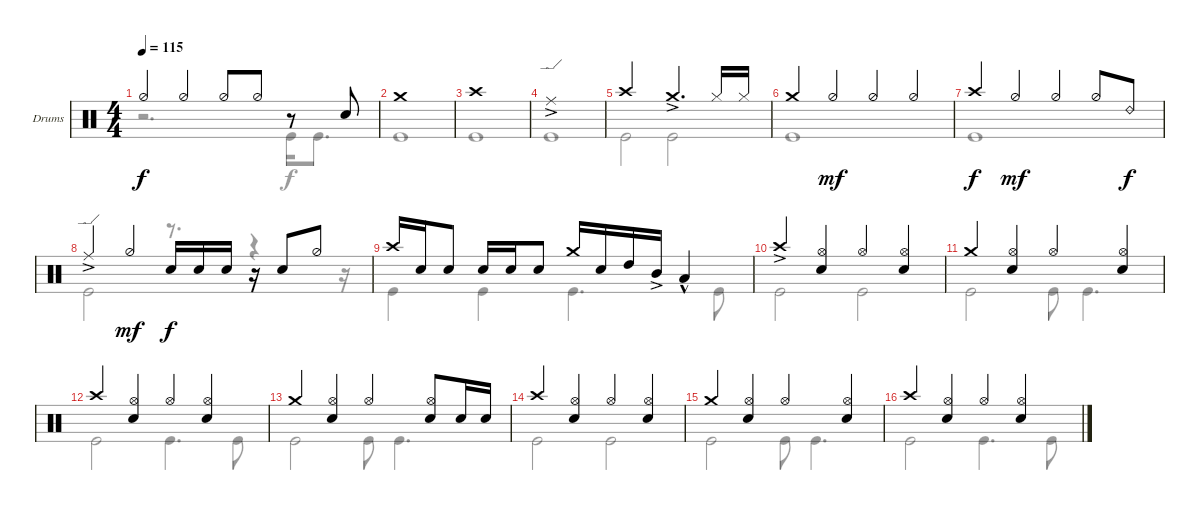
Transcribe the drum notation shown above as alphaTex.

\defaultSystemsLayout 4
\bracketExtendMode groupsimilarinstruments
\firstSystemTrackNameOrientation horizontal
\otherSystemsTrackNameOrientation horizontal
\track ("Drumkit" "Drums") {instrument percussion}
\staff {score}
\articulation defaults
\voice
\ts (4 4)
\tempo 115
\clef neutral
\scale
0.472222
\ks c "Hi-Hat (half)".4{dy f} "Hi-Hat (half)".4 "Hi-Hat (half)".8 "Hi-Hat (half)".8
r.8 "Snare (hit) 2".8 |
\scale
0.263889 "Crash medium (hit)".1 |
\scale
0.263889 "Crash high (hit)".1 |
\scale
0.333333 "Ride (edge)"{ac}.1 |
\scale
0.333333 "Crash high (hit)".2 "Crash medium (hit)"{ac}.4{d} "Hi-Hat (closed)".16 "Hi-Hat (closed)".16 |
\scale
0.333333 "Crash medium (hit)".4 "Hi-Hat (half)".4{dy mf} "Hi-Hat (half)".4 "Hi-Hat (half)".4 |
\scale
0.333333 "Crash high (hit)".4{dy f} "Hi-Hat (half)".4{dy mf} "Hi-Hat (half)".4 "Hi-Hat (half)".8 "Ride (bell) 2".8{dy f} |
\scale
0.333333 "Ride (edge)"{ac}.4 "Hi-Hat (half)".4{dy mf} "Snare (hit) 2".16{dy f} "Snare (hit) 2".16 "Snare (hit) 2".16 r.16 "Snare (hit) 2".8 "Hi-Hat (half)".8 |
\scale
0.333333 "Crash high (hit)".16 "Snare (hit) 2".16 "Snare (hit) 2".8 "Snare (hit) 2".16 "Snare (hit) 2".16 "Snare (hit) 2".8 "Crash medium (hit)".16 "Snare (hit) 2".16 "High Tom (hit)".16 "Mid Tom (hit)"{ac}.16 "Low Tom (hit)"{hac}.4 |
\scale
0.333333 "Crash high (hit)"{ac}.4 ("Hi-Hat (open)" "Snare (hit) 2").4 "Hi-Hat (open)".4 ("Hi-Hat (open)" "Snare (hit) 2").4 |
\scale
0.333333 "Crash medium (hit)".4 ("Hi-Hat (open)" "Snare (hit) 2").4 "Hi-Hat (open)".4 ("Hi-Hat (open)" "Snare (hit) 2").4 |
\scale
0.333333 "Crash high (hit)".4 ("Hi-Hat (open)" "Snare (hit) 2").4 "Hi-Hat (open)".4 ("Hi-Hat (open)" "Snare (hit) 2").4 |
\scale
0.333333 "Crash medium (hit)".4 ("Hi-Hat (open)" "Snare (hit) 2").4 "Hi-Hat (open)".4 ("Hi-Hat (open)" "Snare (hit) 2").8 "Snare (hit) 2".16 "Snare (hit) 2".16 |
\scale
0.333333 "Crash high (hit)".4 ("Hi-Hat (open)" "Snare (hit) 2").4 "Hi-Hat (open)".4 ("Hi-Hat (open)" "Snare (hit) 2").4 |
\scale
0.333333 "Crash medium (hit)".4 ("Hi-Hat (open)" "Snare (hit) 2").4 "Hi-Hat (open)".4 ("Hi-Hat (open)" "Snare (hit) 2").4 |
"Crash high (hit)".4 ("Hi-Hat (open)" "Snare (hit) 2").4 "Hi-Hat (open)".4 ("Hi-Hat (open)" "Snare (hit) 2").4
\voice
\clef neutral
\ottava regular
\simile none
\scale
0.472222
\ks c
r.2{d dy f} "Kick (hit)".16 "Kick (hit)".8{d} |
\scale
0.263889 "Kick (hit)".1 |
\scale
0.263889 "Kick (hit)".1 |
\scale
0.333333 "Kick (hit)".1 |
\scale
0.333333 "Kick (hit)".2 "Kick (hit)".2 |
\scale
0.333333 "Kick (hit)".1 |
\scale
0.333333 "Kick (hit)".1 |
\scale
0.333333 "Kick (hit)".2 r.8{d} r.4 r.16 |
\scale
0.333333 "Kick (hit)".4 "Kick (hit)".4 "Kick (hit)".4{d} "Kick (hit)".8 |
\scale
0.333333 "Kick (hit)".2 "Kick (hit)".2 |
\scale
0.333333 "Kick (hit)".2 "Kick (hit)".8 "Kick (hit)".4{d} |
\scale
0.333333 "Kick (hit)".2 "Kick (hit)".4{d} "Kick (hit)".8 |
\scale
0.333333 "Kick (hit)".2 "Kick (hit)".8 "Kick (hit)".4{d} |
\scale
0.333333 "Kick (hit)".2 "Kick (hit)".2 |
\scale
0.333333 "Kick (hit)".2 "Kick (hit)".8 "Kick (hit)".4{d} |
"Kick (hit)".2 "Kick (hit)".4{d} "Kick (hit)".8
